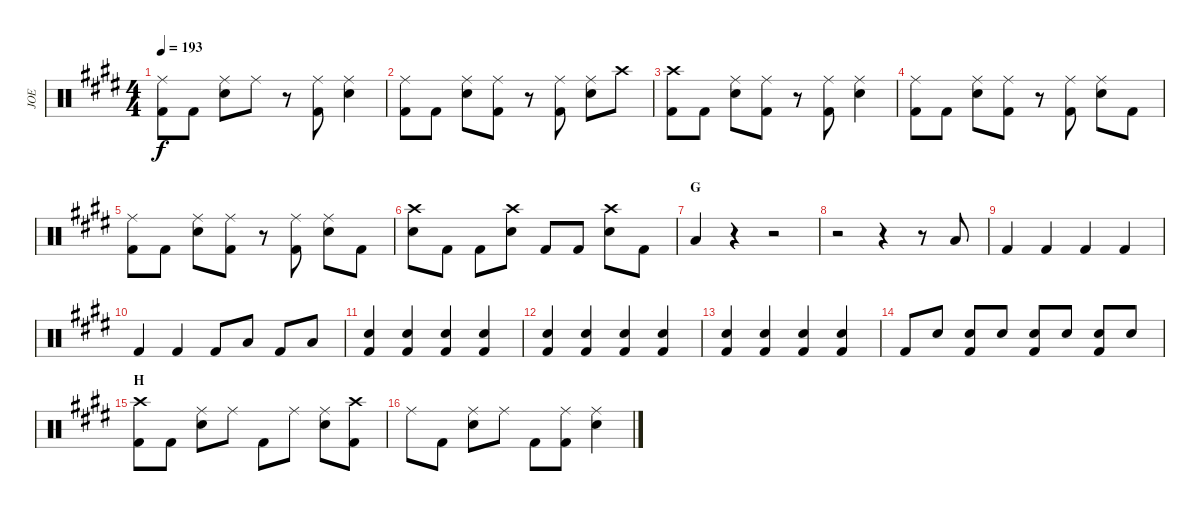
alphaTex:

\track ("JOE" "JOE") {instrument percussion}
\staff {score}
\articulation defaults
\ts (4 4)
\tempo 193
\clef neutral
\ks c#minor
("Ride (middle)" "Kick (hit) 2").8{dy f} "Kick (hit) 2".8 ("Ride (middle)" "Snare (hit) 2").8 "Ride (middle)".8 r.8 ("Ride (middle)" "Kick (hit) 2").8 ("Ride (middle)" "Snare (hit) 2").4 |
("Ride (middle)" "Kick (hit) 2").8 "Kick (hit) 2".8 ("Ride (middle)" "Snare (hit) 2").8 ("Ride (middle)" "Kick (hit) 2").8 r.8 ("Ride (middle)" "Kick (hit) 2").8 ("Ride (middle)" "Snare (hit) 2").8 "Crash high (hit)".8 |
("Crash high (hit)" "Kick (hit) 2").8 "Kick (hit) 2".8 ("Ride (middle)" "Snare (hit) 2").8 ("Ride (middle)" "Kick (hit) 2").8 r.8 ("Ride (middle)" "Kick (hit) 2").8 ("Ride (middle)" "Snare (hit) 2").4 |
("Ride (middle)" "Kick (hit) 2").8 "Kick (hit) 2".8 ("Ride (middle)" "Snare (hit) 2").8 ("Ride (middle)" "Kick (hit) 2").8 r.8 ("Ride (middle)" "Kick (hit) 2").8 ("Ride (middle)" "Snare (hit) 2").8 "Kick (hit) 2".8 |
("Ride (middle)" "Kick (hit) 2").8 "Kick (hit) 2".8 ("Ride (middle)" "Snare (hit) 2").8 ("Ride (middle)" "Kick (hit) 2").8 r.8 ("Ride (middle)" "Kick (hit) 2").8 ("Ride (middle)" "Snare (hit) 2").8 "Kick (hit) 2".8 |
("Crash high (hit)" "Snare (hit) 2").8 "Kick (hit) 2".8 "Kick (hit) 2".8 ("Crash high (hit)" "Snare (hit) 2").8 "Kick (hit) 2".8 "Kick (hit) 2".8 ("Crash high (hit)" "Snare (hit) 2").8 "Kick (hit) 2".8 |
\section ("" "G")
"Low Floor Tom (hit)".4 r.4 r.2 |
r.2 r.4 r.8 "Low Floor Tom (hit)".8 |
"Kick (hit) 2".4 "Kick (hit) 2".4 "Kick (hit) 2".4 "Kick (hit) 2".4 |
"Kick (hit) 2".4 "Kick (hit) 2".4 "Kick (hit) 2".8 "Low Floor Tom (hit)".8 "Kick (hit) 2".8 "Low Floor Tom (hit)".8 |
("Snare (hit) 2" "Kick (hit) 2").4 ("Snare (hit) 2" "Kick (hit) 2").4 ("Snare (hit) 2" "Kick (hit) 2").4 ("Snare (hit) 2" "Kick (hit) 2").4 |
("Snare (hit) 2" "Kick (hit) 2").4 ("Snare (hit) 2" "Kick (hit) 2").4 ("Snare (hit) 2" "Kick (hit) 2").4 ("Snare (hit) 2" "Kick (hit) 2").4 |
("Snare (hit) 2" "Kick (hit) 2").4 ("Snare (hit) 2" "Kick (hit) 2").4 ("Snare (hit) 2" "Kick (hit) 2").4 ("Snare (hit) 2" "Kick (hit) 2").4 |
"Kick (hit) 2".8 "Snare (hit) 2".8 ("Snare (hit) 2" "Kick (hit) 2").8 "Snare (hit) 2".8 ("Snare (hit) 2" "Kick (hit) 2").8 "Snare (hit) 2".8 ("Snare (hit) 2" "Kick (hit) 2").8 "Snare (hit) 2".8 |
\section ("" "H")
("Crash high (hit)" "Kick (hit) 2").8 "Kick (hit) 2".8 ("Ride (middle)" "Snare (hit) 2").8 "Ride (middle)".8 "Kick (hit) 2".8 "Ride (middle)".8 ("Ride (middle)" "Snare (hit) 2").8 ("Crash high (hit)" "Kick (hit) 2").8 |
"Ride (middle)".8 "Kick (hit) 2".8 ("Ride (middle)" "Snare (hit) 2").8 "Ride (middle)".8 "Kick (hit) 2".8 ("Ride (middle)" "Kick (hit) 2").8 ("Ride (middle)" "Snare (hit) 2").4
